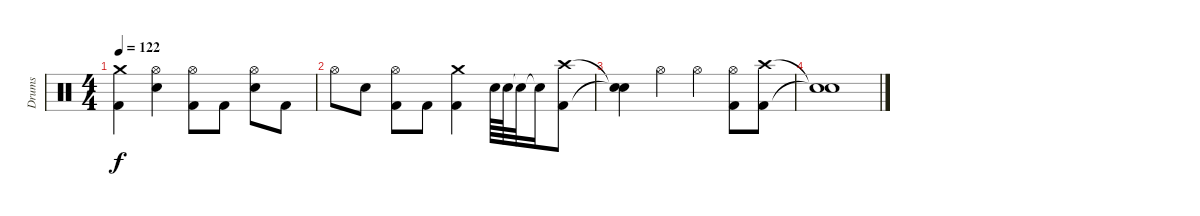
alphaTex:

\track ("Drums" "Drums") {instrument percussion}
\staff {score}
\articulation defaults
\ts (4 4)
\tempo 122
\clef neutral
\ks c
("Crash medium (hit)" "Kick (hit) 2").4{dy f} ("Hi-Hat (open)" "Electric Snare (hit)").4 ("Hi-Hat (open)" "Kick (hit) 2").8 "Kick (hit) 2".8 ("Hi-Hat (open)" "Electric Snare (hit)").8 "Kick (hit) 2".8 |
"Hi-Hat (open)".8 "Electric Snare (hit)".8 ("Hi-Hat (open)" "Kick (hit) 2").8 "Kick (hit) 2".8 ("Crash medium (hit)" "Kick (hit) 2").4 "Electric Snare (hit)".64 "Electric Snare (hit)".64 "Snare (hit)"{t}.32 "Snare (hit)"{t}.16 ("Crash high (hit)" "Kick (hit) 2").8 |
("Snare (hit)"{t} "Snare (hit)"{t}).4 "Hi-Hat (open)".4 "Hi-Hat (open)".4 ("Hi-Hat (open)" "Kick (hit) 2").8 ("Crash high (hit)" "Kick (hit) 2").8 |
("Snare (hit)"{t} "Snare (hit)"{t}).1
